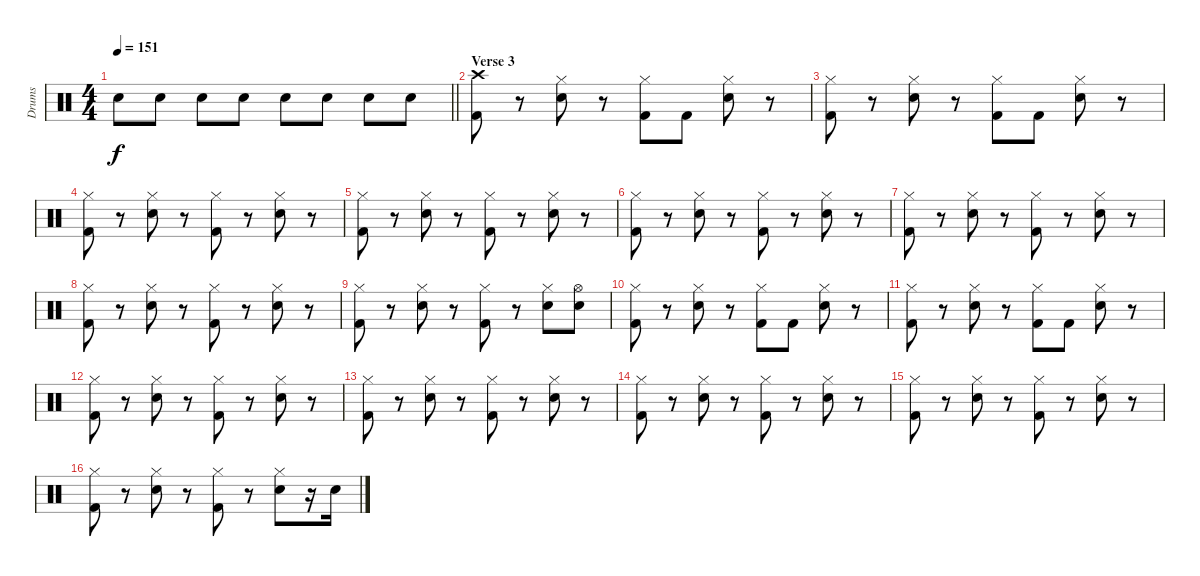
\track ("Drums" "Drums") {instrument percussion}
\staff {score}
\articulation defaults
\ts (4 4)
\tempo 151
\clef neutral
\barLineRight lightlight
\ks c "Snare (hit) 2".8{dy f} "Snare (hit) 2".8 "Snare (hit) 2".8 "Snare (hit) 2".8 "Snare (hit) 2".8 "Snare (hit) 2".8 "Snare (hit) 2".8 "Snare (hit) 2".8
|
\section ("" "Verse 3")
("Crash high (hit)" "Kick (hit) 2").8 r.8 ("Hi-Hat (closed)" "Snare (hit) 2").8 r.8 ("Hi-Hat (closed)" "Kick (hit) 2").8 "Kick (hit) 2".8 ("Hi-Hat (closed)" "Snare (hit) 2").8 r.8 |
("Hi-Hat (closed)" "Kick (hit) 2").8 r.8 ("Hi-Hat (closed)" "Snare (hit) 2").8 r.8 ("Hi-Hat (closed)" "Kick (hit) 2").8 "Kick (hit) 2".8 ("Hi-Hat (closed)" "Snare (hit) 2").8 r.8 |
("Hi-Hat (closed)" "Kick (hit) 2").8 r.8 ("Hi-Hat (closed)" "Snare (hit) 2").8 r.8 ("Hi-Hat (closed)" "Kick (hit) 2").8 r.8 ("Hi-Hat (closed)" "Snare (hit) 2").8 r.8 |
("Hi-Hat (closed)" "Kick (hit) 2").8 r.8 ("Hi-Hat (closed)" "Snare (hit) 2").8 r.8 ("Hi-Hat (closed)" "Kick (hit) 2").8 r.8 ("Hi-Hat (closed)" "Snare (hit) 2").8 r.8 |
("Hi-Hat (closed)" "Kick (hit) 2").8 r.8 ("Hi-Hat (closed)" "Snare (hit) 2").8 r.8 ("Hi-Hat (closed)" "Kick (hit) 2").8 r.8 ("Hi-Hat (closed)" "Snare (hit) 2").8 r.8 |
("Hi-Hat (closed)" "Kick (hit) 2").8 r.8 ("Hi-Hat (closed)" "Snare (hit) 2").8 r.8 ("Hi-Hat (closed)" "Kick (hit) 2").8 r.8 ("Hi-Hat (closed)" "Snare (hit) 2").8 r.8 |
("Hi-Hat (closed)" "Kick (hit) 2").8 r.8 ("Hi-Hat (closed)" "Snare (hit) 2").8 r.8 ("Hi-Hat (closed)" "Kick (hit) 2").8 r.8 ("Hi-Hat (closed)" "Snare (hit) 2").8 r.8 |
("Hi-Hat (closed)" "Kick (hit) 2").8 r.8 ("Hi-Hat (closed)" "Snare (hit) 2").8 r.8 ("Hi-Hat (closed)" "Kick (hit) 2").8 r.8 ("Hi-Hat (closed)" "Snare (hit) 2").8 ("Hi-Hat (open)" "Snare (hit) 2").8 |
("Hi-Hat (closed)" "Kick (hit) 2").8 r.8 ("Hi-Hat (closed)" "Snare (hit) 2").8 r.8 ("Hi-Hat (closed)" "Kick (hit) 2").8 "Kick (hit) 2".8 ("Hi-Hat (closed)" "Snare (hit) 2").8 r.8 |
("Hi-Hat (closed)" "Kick (hit) 2").8 r.8 ("Hi-Hat (closed)" "Snare (hit) 2").8 r.8 ("Hi-Hat (closed)" "Kick (hit) 2").8 "Kick (hit) 2".8 ("Hi-Hat (closed)" "Snare (hit) 2").8 r.8 |
("Hi-Hat (closed)" "Kick (hit) 2").8 r.8 ("Hi-Hat (closed)" "Snare (hit) 2").8 r.8 ("Hi-Hat (closed)" "Kick (hit) 2").8 r.8 ("Hi-Hat (closed)" "Snare (hit) 2").8 r.8 |
("Hi-Hat (closed)" "Kick (hit) 2").8 r.8 ("Hi-Hat (closed)" "Snare (hit) 2").8 r.8 ("Hi-Hat (closed)" "Kick (hit) 2").8 r.8 ("Hi-Hat (closed)" "Snare (hit) 2").8 r.8 |
("Hi-Hat (closed)" "Kick (hit) 2").8 r.8 ("Hi-Hat (closed)" "Snare (hit) 2").8 r.8 ("Hi-Hat (closed)" "Kick (hit) 2").8 r.8 ("Hi-Hat (closed)" "Snare (hit) 2").8 r.8 |
("Hi-Hat (closed)" "Kick (hit) 2").8 r.8 ("Hi-Hat (closed)" "Snare (hit) 2").8 r.8 ("Hi-Hat (closed)" "Kick (hit) 2").8 r.8 ("Hi-Hat (closed)" "Snare (hit) 2").8 r.8 |
("Hi-Hat (closed)" "Kick (hit) 2").8 r.8 ("Hi-Hat (closed)" "Snare (hit) 2").8 r.8 ("Hi-Hat (closed)" "Kick (hit) 2").8 r.8 ("Hi-Hat (closed)" "Snare (hit) 2").8 r.16 "Snare (hit) 2".16
